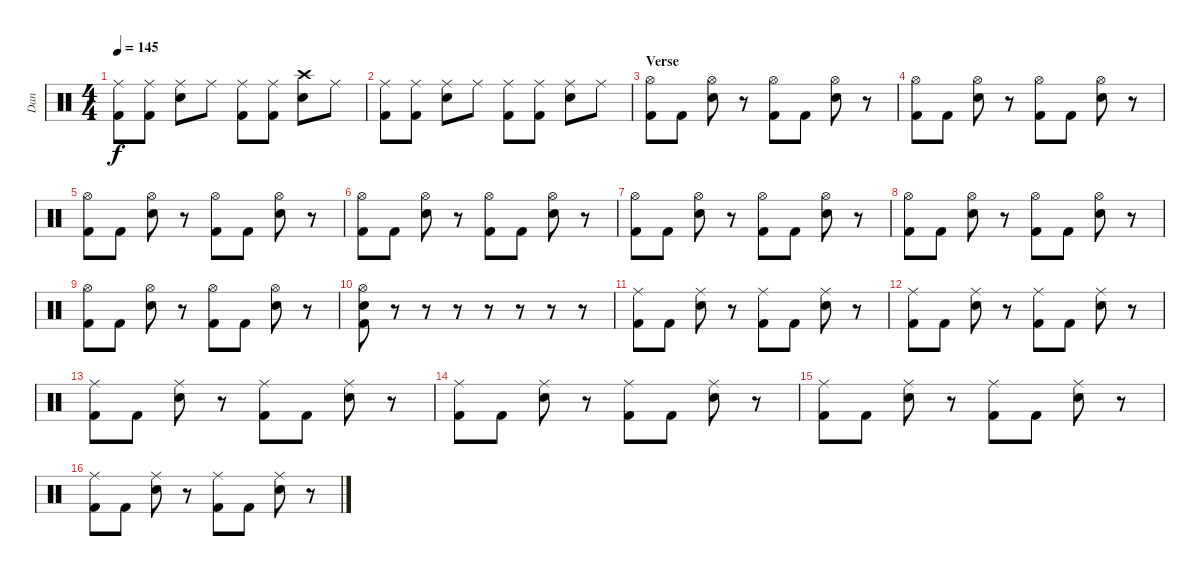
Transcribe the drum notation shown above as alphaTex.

\track ("Dan" "Dan") {instrument percussion}
\staff {score}
\articulation defaults
\ts (4 4)
\tempo 145
\clef neutral
\ks c
("Ride (middle)" "Kick (hit) 2").8{dy f} ("Ride (middle)" "Kick (hit) 2").8 ("Ride (middle)" "Snare (hit) 2").8 "Ride (middle)".8 ("Ride (middle)" "Kick (hit) 2").8 ("Ride (middle)" "Kick (hit) 2").8 ("Crash high (hit)" "Snare (hit) 2").8 "Ride (middle)".8 |
("Ride (middle)" "Kick (hit) 2").8 ("Ride (middle)" "Kick (hit) 2").8 ("Ride (middle)" "Snare (hit) 2").8 "Ride (middle)".8 ("Ride (middle)" "Kick (hit) 2").8 ("Ride (middle)" "Kick (hit) 2").8 ("Ride (middle)" "Snare (hit) 2").8 "Ride (middle)".8 |
\section ("" "Verse")
("Hi-Hat (open)" "Kick (hit) 2").8 "Kick (hit) 2".8 ("Hi-Hat (open)" "Snare (hit) 2").8 r.8 ("Hi-Hat (open)" "Kick (hit) 2").8 "Kick (hit) 2".8 ("Hi-Hat (open)" "Snare (hit) 2").8 r.8 |
("Hi-Hat (open)" "Kick (hit) 2").8 "Kick (hit) 2".8 ("Hi-Hat (open)" "Snare (hit) 2").8 r.8 ("Hi-Hat (open)" "Kick (hit) 2").8 "Kick (hit) 2".8 ("Hi-Hat (open)" "Snare (hit) 2").8 r.8 |
("Hi-Hat (open)" "Kick (hit) 2").8 "Kick (hit) 2".8 ("Hi-Hat (open)" "Snare (hit) 2").8 r.8 ("Hi-Hat (open)" "Kick (hit) 2").8 "Kick (hit) 2".8 ("Hi-Hat (open)" "Snare (hit) 2").8 r.8 |
("Hi-Hat (open)" "Kick (hit) 2").8 "Kick (hit) 2".8 ("Hi-Hat (open)" "Snare (hit) 2").8 r.8 ("Hi-Hat (open)" "Kick (hit) 2").8 "Kick (hit) 2".8 ("Hi-Hat (open)" "Snare (hit) 2").8 r.8 |
("Hi-Hat (open)" "Kick (hit) 2").8 "Kick (hit) 2".8 ("Hi-Hat (open)" "Snare (hit) 2").8 r.8 ("Hi-Hat (open)" "Kick (hit) 2").8 "Kick (hit) 2".8 ("Hi-Hat (open)" "Snare (hit) 2").8 r.8 |
("Hi-Hat (open)" "Kick (hit) 2").8 "Kick (hit) 2".8 ("Hi-Hat (open)" "Snare (hit) 2").8 r.8 ("Hi-Hat (open)" "Kick (hit) 2").8 "Kick (hit) 2".8 ("Hi-Hat (open)" "Snare (hit) 2").8 r.8 |
("Hi-Hat (open)" "Kick (hit) 2").8 "Kick (hit) 2".8 ("Hi-Hat (open)" "Snare (hit) 2").8 r.8 ("Hi-Hat (open)" "Kick (hit) 2").8 "Kick (hit) 2".8 ("Hi-Hat (open)" "Snare (hit) 2").8 r.8 |
("Hi-Hat (open)" "Snare (hit) 2" "Kick (hit) 2").8 r.8 r.8 r.8 r.8 r.8 r.8 r.8 |
("Ride (middle)" "Kick (hit) 2").8 "Kick (hit) 2".8 ("Ride (middle)" "Snare (hit) 2").8 r.8 ("Ride (middle)" "Kick (hit) 2").8 "Kick (hit) 2".8 ("Ride (middle)" "Snare (hit) 2").8 r.8 |
("Ride (middle)" "Kick (hit) 2").8 "Kick (hit) 2".8 ("Ride (middle)" "Snare (hit) 2").8 r.8 ("Ride (middle)" "Kick (hit) 2").8 "Kick (hit) 2".8 ("Ride (middle)" "Snare (hit) 2").8 r.8 |
("Ride (middle)" "Kick (hit) 2").8 "Kick (hit) 2".8 ("Ride (middle)" "Snare (hit) 2").8 r.8 ("Ride (middle)" "Kick (hit) 2").8 "Kick (hit) 2".8 ("Ride (middle)" "Snare (hit) 2").8 r.8 |
("Ride (middle)" "Kick (hit) 2").8 "Kick (hit) 2".8 ("Ride (middle)" "Snare (hit) 2").8 r.8 ("Ride (middle)" "Kick (hit) 2").8 "Kick (hit) 2".8 ("Ride (middle)" "Snare (hit) 2").8 r.8 |
("Ride (middle)" "Kick (hit) 2").8 "Kick (hit) 2".8 ("Ride (middle)" "Snare (hit) 2").8 r.8 ("Ride (middle)" "Kick (hit) 2").8 "Kick (hit) 2".8 ("Ride (middle)" "Snare (hit) 2").8 r.8 |
("Ride (middle)" "Kick (hit) 2").8 "Kick (hit) 2".8 ("Ride (middle)" "Snare (hit) 2").8 r.8 ("Ride (middle)" "Kick (hit) 2").8 "Kick (hit) 2".8 ("Ride (middle)" "Snare (hit) 2").8 r.8
